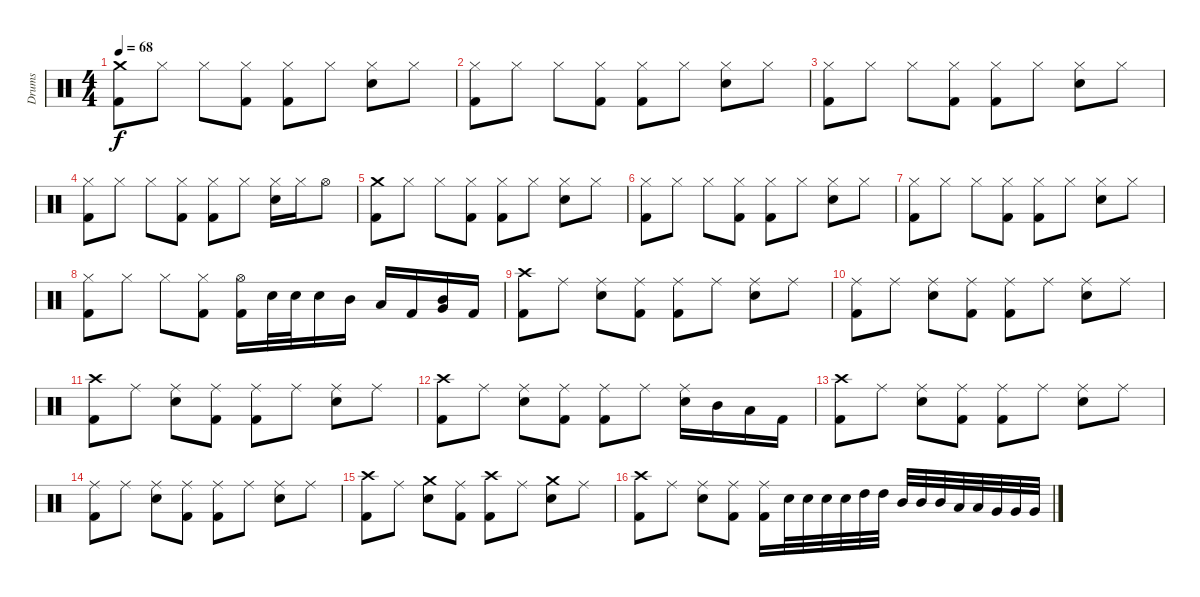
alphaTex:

\track ("Drums" "Drums") {instrument percussion}
\staff {score}
\articulation defaults
\ts (4 4)
\tempo 68
\clef neutral
\ks c
("Crash medium (hit)" "Kick (hit) 2").8{dy f} "Hi-Hat (closed)".8 "Hi-Hat (closed)".8 ("Hi-Hat (closed)" "Kick (hit) 2").8 ("Hi-Hat (closed)" "Kick (hit) 2").8 "Hi-Hat (closed)".8 ("Hi-Hat (closed)" "Electric Snare (hit)").8 "Hi-Hat (closed)".8 |
("Hi-Hat (closed)" "Kick (hit) 2").8 "Hi-Hat (closed)".8 "Hi-Hat (closed)".8 ("Hi-Hat (closed)" "Kick (hit) 2").8 ("Hi-Hat (closed)" "Kick (hit) 2").8 "Hi-Hat (closed)".8 ("Hi-Hat (closed)" "Electric Snare (hit)").8 "Hi-Hat (closed)".8 |
("Hi-Hat (closed)" "Kick (hit) 2").8 "Hi-Hat (closed)".8 "Hi-Hat (closed)".8 ("Hi-Hat (closed)" "Kick (hit) 2").8 ("Hi-Hat (closed)" "Kick (hit) 2").8 "Hi-Hat (closed)".8 ("Hi-Hat (closed)" "Electric Snare (hit)").8 "Hi-Hat (closed)".8 |
("Hi-Hat (closed)" "Kick (hit) 2").8 "Hi-Hat (closed)".8 "Hi-Hat (closed)".8 ("Hi-Hat (closed)" "Kick (hit) 2").8 ("Hi-Hat (closed)" "Kick (hit) 2").8 "Hi-Hat (closed)".8 ("Hi-Hat (closed)" "Electric Snare (hit)").16 "Hi-Hat (closed)".16 "Hi-Hat (open)".8 |
("Crash medium (hit)" "Kick (hit) 2").8 "Hi-Hat (closed)".8 "Hi-Hat (closed)".8 ("Hi-Hat (closed)" "Kick (hit) 2").8 ("Hi-Hat (closed)" "Kick (hit) 2").8 "Hi-Hat (closed)".8 ("Hi-Hat (closed)" "Electric Snare (hit)").8 "Hi-Hat (closed)".8 |
("Hi-Hat (closed)" "Kick (hit) 2").8 "Hi-Hat (closed)".8 "Hi-Hat (closed)".8 ("Hi-Hat (closed)" "Kick (hit) 2").8 ("Hi-Hat (closed)" "Kick (hit) 2").8 "Hi-Hat (closed)".8 ("Hi-Hat (closed)" "Electric Snare (hit)").8 "Hi-Hat (closed)".8 |
("Hi-Hat (closed)" "Kick (hit) 2").8 "Hi-Hat (closed)".8 "Hi-Hat (closed)".8 ("Hi-Hat (closed)" "Kick (hit) 2").8 ("Hi-Hat (closed)" "Kick (hit) 2").8 "Hi-Hat (closed)".8 ("Hi-Hat (closed)" "Electric Snare (hit)").8 "Hi-Hat (closed)".8 |
("Hi-Hat (closed)" "Kick (hit) 2").8 "Hi-Hat (closed)".8 "Hi-Hat (closed)".8 ("Hi-Hat (closed)" "Kick (hit) 2").8 ("Hi-Hat (open)" "Kick (hit) 2").16 "Electric Snare (hit)".32 "Electric Snare (hit)".32 "Electric Snare (hit)".16 "Mid Tom (hit)".16{balance 13} "Low Tom (hit)".16{balance 8} "Kick (hit) 2".16{balance 8} ("Very Low Tom (hit)" "Mid Tom (hit)").16{balance 11} "Kick (hit) 2".16{balance 8} |
("Crash high (hit)" "Kick (hit) 2").8 "Ride (middle)".8 ("Ride (middle)" "Electric Snare (hit)").8 ("Ride (middle)" "Kick (hit) 2").8 ("Ride (middle)" "Kick (hit) 2").8 "Ride (middle)".8 ("Ride (middle)" "Electric Snare (hit)").8 "Ride (middle)".8 |
("Ride (middle)" "Kick (hit) 2").8 "Ride (middle)".8 ("Ride (middle)" "Electric Snare (hit)").8 ("Ride (middle)" "Kick (hit) 2").8 ("Ride (middle)" "Kick (hit) 2").8 "Ride (middle)".8 ("Ride (middle)" "Electric Snare (hit)").8 "Ride (middle)".8 |
("Crash high (hit)" "Kick (hit) 2").8 "Ride (middle)".8 ("Ride (middle)" "Electric Snare (hit)").8 ("Ride (middle)" "Kick (hit) 2").8 ("Ride (middle)" "Kick (hit) 2").8 "Ride (middle)".8 ("Ride (middle)" "Electric Snare (hit)").8 "Ride (middle)".8 |
("Crash high (hit)" "Kick (hit) 2").8 "Ride (middle)".8 ("Ride (middle)" "Electric Snare (hit)").8 ("Ride (middle)" "Kick (hit) 2").8 ("Ride (middle)" "Kick (hit) 2").8 "Ride (middle)".8 ("Ride (middle)" "Electric Snare (hit)").16 "Mid Tom (hit)".16{balance 13} "Low Tom (hit)".16{balance 11} "Kick (hit) 2".16{balance 8} |
("Crash high (hit)" "Kick (hit) 2").8 "Ride (middle)".8 ("Ride (middle)" "Electric Snare (hit)").8 ("Ride (middle)" "Kick (hit) 2").8 ("Ride (middle)" "Kick (hit) 2").8 "Ride (middle)".8 ("Ride (middle)" "Electric Snare (hit)").8 "Ride (middle)".8 |
("Ride (middle)" "Kick (hit) 2").8 "Ride (middle)".8 ("Ride (middle)" "Electric Snare (hit)").8 ("Ride (middle)" "Kick (hit) 2").8 ("Ride (middle)" "Kick (hit) 2").8 "Ride (middle)".8 ("Ride (middle)" "Electric Snare (hit)").8 "Ride (middle)".8 |
("Crash high (hit)" "Kick (hit) 2").8 "Ride (middle)".8 ("Crash medium (hit)" "Electric Snare (hit)").8 ("Ride (middle)" "Kick (hit) 2").8 ("Crash high (hit)" "Kick (hit) 2").8 "Ride (middle)".8 ("Crash medium (hit)" "Electric Snare (hit)").8 "Ride (middle)".8 |
("Crash high (hit)" "Kick (hit) 2").8 "Ride (middle)".8 ("Ride (middle)" "Electric Snare (hit)").8 ("Ride (middle)" "Kick (hit) 2").8 ("Ride (middle)" "Kick (hit) 2").16 "Electric Snare (hit)".32 "Electric Snare (hit)".32 "Electric Snare (hit)".32 "Electric Snare (hit)".32 "High Tom (hit)".32{balance 14} "High Tom (hit)".32 "Mid Tom (hit)".32{balance 13} "Mid Tom (hit)".32 "Mid Tom (hit)".32 "Low Tom (hit)".32{balance 10} "Low Tom (hit)".32 "Very Low Tom (hit)".32{balance 8} "Very Low Tom (hit)".32 "Very Low Tom (hit)".32
